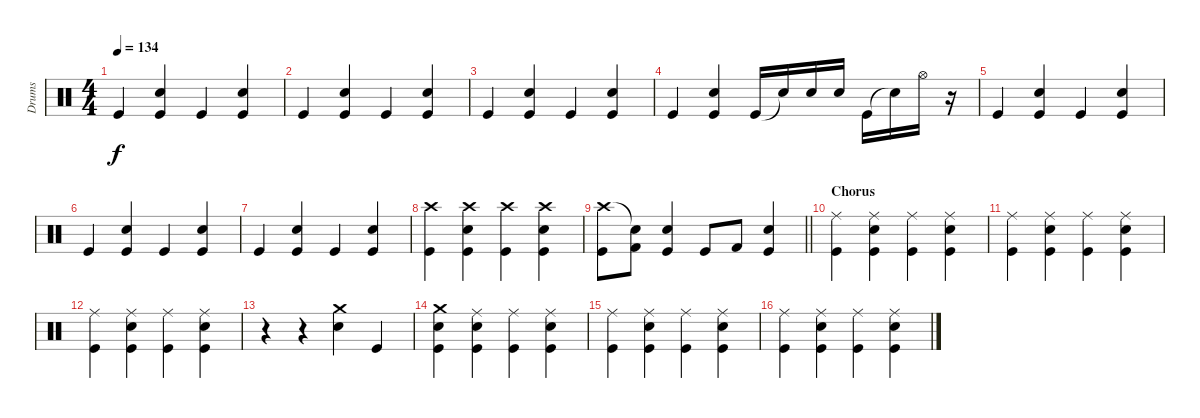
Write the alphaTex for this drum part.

\track ("Drums" "Drums") {solo instrument percussion}
\staff {score}
\articulation defaults
\ts (4 4)
\tempo 134
\clef neutral
\ks c "Kick (hit)".4{dy f}
("Kick (hit)" "Snare (hit) 2").4 "Kick (hit)".4 ("Kick (hit)" "Snare (hit) 2").4 |
"Kick (hit)".4 ("Kick (hit)" "Snare (hit) 2").4 "Kick (hit)".4 ("Kick (hit)" "Snare (hit) 2").4 |
"Kick (hit)".4 ("Kick (hit)" "Snare (hit) 2").4 "Kick (hit)".4 ("Kick (hit)" "Snare (hit) 2").4 |
"Kick (hit)".4 ("Kick (hit)" "Snare (hit) 2").4 "Kick (hit)".16 "Snare (hit) 2"{t}.16 "Snare (hit) 2".16 "Snare (hit) 2".16 "Kick (hit)".16 "Snare (hit)"{t}.16 "Hi-Hat (open)".16 r.16 |
"Kick (hit)".4 ("Kick (hit)" "Snare (hit) 2").4 "Kick (hit)".4 ("Kick (hit)" "Snare (hit) 2").4 |
"Kick (hit)".4 ("Kick (hit)" "Snare (hit) 2").4 "Kick (hit)".4 ("Kick (hit)" "Snare (hit) 2").4 |
"Kick (hit)".4 ("Kick (hit)" "Snare (hit) 2").4 "Kick (hit)".4 ("Kick (hit)" "Snare (hit) 2").4 |
("Crash high (hit)" "Kick (hit)").4 ("Crash high (hit)" "Kick (hit)" "Snare (hit) 2").4 ("Crash high (hit)" "Kick (hit)").4 ("Crash high (hit)" "Kick (hit)" "Snare (hit) 2").4 |
\barLineRight lightlight
("Crash high (hit)" "Kick (hit)").8 ("Snare (hit)"{t} "Kick (hit) 2").8 ("Kick (hit)" "Snare (hit) 2").4 "Kick (hit)".8 "Kick (hit) 2".8 ("Kick (hit)" "Snare (hit) 2").4 |
\section ("" "Chorus")
("Ride (middle)" "Kick (hit)").4 ("Ride (middle)" "Kick (hit)" "Snare (hit) 2").4 ("Ride (middle)" "Kick (hit)").4 ("Ride (middle)" "Kick (hit)" "Snare (hit) 2").4 |
("Ride (middle)" "Kick (hit)").4 ("Ride (middle)" "Kick (hit)" "Snare (hit) 2").4 ("Ride (middle)" "Kick (hit)").4 ("Ride (middle)" "Kick (hit)" "Snare (hit) 2").4 |
("Ride (middle)" "Kick (hit)").4 ("Ride (middle)" "Kick (hit)" "Snare (hit) 2").4 ("Ride (middle)" "Kick (hit)").4 ("Ride (middle)" "Kick (hit)" "Snare (hit) 2").4 |
r.4 r.4 ("Crash medium (hit)" "Snare (hit) 2").4 "Kick (hit)".4 |
("Crash medium (hit)" "Snare (hit) 2" "Kick (hit)").4 ("Ride (middle)" "Kick (hit)" "Snare (hit) 2").4 ("Ride (middle)" "Kick (hit)").4 ("Ride (middle)" "Kick (hit)" "Snare (hit) 2").4 |
("Ride (middle)" "Kick (hit)").4 ("Ride (middle)" "Kick (hit)" "Snare (hit) 2").4 ("Ride (middle)" "Kick (hit)").4 ("Ride (middle)" "Kick (hit)" "Snare (hit) 2").4 |
("Ride (middle)" "Kick (hit)").4 ("Ride (middle)" "Kick (hit)" "Snare (hit) 2").4 ("Ride (middle)" "Kick (hit)").4 ("Ride (middle)" "Kick (hit)" "Snare (hit) 2").4
